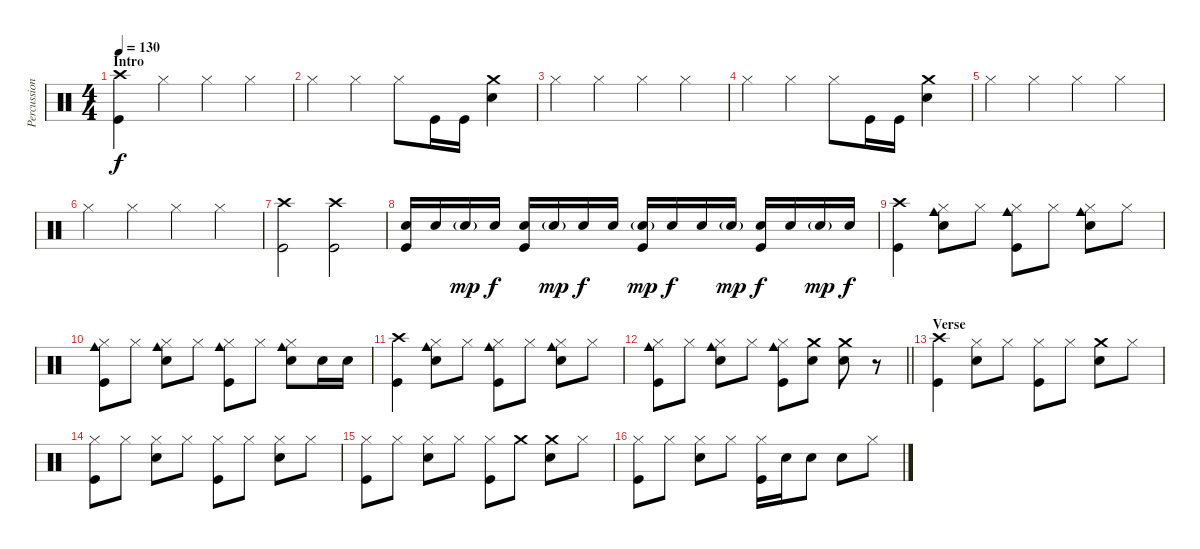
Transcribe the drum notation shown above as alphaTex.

\track ("Percussions" "Percussion") {instrument percussion}
\staff {score}
\articulation defaults
\ts (4 4)
\section ("" "Intro")
\tempo 130
\clef neutral
\ks c
("Crash high (hit)" "Kick (hit)").4{dy f} "Hi-Hat (closed)".4 "Hi-Hat (closed)".4 "Hi-Hat (closed)".4 |
"Hi-Hat (closed)".4 "Hi-Hat (closed)".4 "Hi-Hat (closed)".8 "Kick (hit)".16 "Kick (hit)".16 ("Crash medium (hit)" "Snare (hit) 2").4 |
"Hi-Hat (closed)".4 "Hi-Hat (closed)".4 "Hi-Hat (closed)".4 "Hi-Hat (closed)".4 |
"Hi-Hat (closed)".4 "Hi-Hat (closed)".4 "Hi-Hat (closed)".8 "Kick (hit)".16 "Kick (hit)".16 ("Crash medium (hit)" "Snare (hit) 2").4 |
"Hi-Hat (closed)".4 "Hi-Hat (closed)".4 "Hi-Hat (closed)".4 "Hi-Hat (closed)".4 |
"Hi-Hat (closed)".4 "Hi-Hat (closed)".4 "Hi-Hat (closed)".4 "Hi-Hat (closed)".4 |
("Crash high (hit)" "Kick (hit)").2 ("Crash high (hit)" "Kick (hit)").2 |
("Snare (hit) 2" "Kick (hit)").16 "Snare (hit) 2".16 "Snare (hit) 2"{g}.16{dy mp} "Snare (hit) 2".16{dy f} ("Snare (hit) 2" "Kick (hit)").16 "Snare (hit) 2"{g}.16{dy mp} "Snare (hit) 2".16{dy f} "Snare (hit) 2".16 ("Snare (hit) 2"{g} "Kick (hit)").16{dy mp} "Snare (hit) 2".16{dy f} "Snare (hit) 2".16 "Snare (hit) 2"{g}.16{dy mp} ("Snare (hit) 2" "Kick (hit)").16{dy f} "Snare (hit) 2".16 "Snare (hit) 2"{g}.16{dy mp} "Snare (hit) 2".16{dy f} |
("Crash high (hit)" "Kick (hit)").4 ("Cowbell medium (hit)" "Hi-Hat (closed)" "Snare (hit) 2").8 "Hi-Hat (closed)".8 ("Cowbell medium (hit)" "Hi-Hat (closed)" "Kick (hit)").8 "Hi-Hat (closed)".8 ("Cowbell medium (hit)" "Hi-Hat (closed)" "Snare (hit) 2").8 "Hi-Hat (closed)".8 |
("Cowbell medium (hit)" "Hi-Hat (closed)" "Kick (hit)").8 "Hi-Hat (closed)".8 ("Cowbell medium (hit)" "Hi-Hat (closed)" "Snare (hit) 2").8 "Hi-Hat (closed)".8 ("Cowbell medium (hit)" "Hi-Hat (closed)" "Kick (hit)").8 "Hi-Hat (closed)".8 ("Cowbell medium (hit)" "Hi-Hat (closed)" "Snare (hit) 2").8 "Snare (hit) 2".16 "Snare (hit) 2".16 |
("Crash high (hit)" "Kick (hit)").4 ("Cowbell medium (hit)" "Hi-Hat (closed)" "Snare (hit) 2").8 "Hi-Hat (closed)".8 ("Cowbell medium (hit)" "Hi-Hat (closed)" "Kick (hit)").8 "Hi-Hat (closed)".8 ("Cowbell medium (hit)" "Hi-Hat (closed)" "Snare (hit) 2").8 "Hi-Hat (closed)".8 |
\barLineRight lightlight
("Cowbell medium (hit)" "Hi-Hat (closed)" "Kick (hit)").8 "Hi-Hat (closed)".8 ("Cowbell medium (hit)" "Hi-Hat (closed)" "Snare (hit) 2").8 "Hi-Hat (closed)".8 ("Cowbell medium (hit)" "Hi-Hat (closed)" "Kick (hit)").8 ("Crash medium (hit)" "Snare (hit) 2").8 ("Crash medium (hit)" "Snare (hit) 2").8 r.8 |
\section ("" "Verse")
("Crash high (hit)" "Kick (hit)").4 ("Hi-Hat (closed)" "Snare (hit) 2").8 "Hi-Hat (closed)".8 ("Hi-Hat (closed)" "Kick (hit)").8 "Hi-Hat (closed)".8 ("Crash medium (hit)" "Snare (hit) 2").8 "Hi-Hat (closed)".8 |
("Hi-Hat (closed)" "Kick (hit)").8 "Hi-Hat (closed)".8 ("Hi-Hat (closed)" "Snare (hit) 2").8 "Hi-Hat (closed)".8 ("Hi-Hat (closed)" "Kick (hit)").8 "Hi-Hat (closed)".8 ("Hi-Hat (closed)" "Snare (hit) 2").8 "Hi-Hat (closed)".8 |
("Hi-Hat (closed)" "Kick (hit)").8 "Hi-Hat (closed)".8 ("Hi-Hat (closed)" "Snare (hit) 2").8 "Hi-Hat (closed)".8 ("Hi-Hat (closed)" "Kick (hit)").8 "Crash medium (hit)".8 ("Crash medium (hit)" "Snare (hit) 2").8 "Hi-Hat (closed)".8 |
("Hi-Hat (closed)" "Kick (hit)").8 "Hi-Hat (closed)".8 ("Hi-Hat (closed)" "Snare (hit) 2").8 "Hi-Hat (closed)".8 ("Hi-Hat (closed)" "Kick (hit)").16 "Snare (hit) 2".16 "Snare (hit) 2".8 "Snare (hit) 2".8 "Hi-Hat (closed)".8
